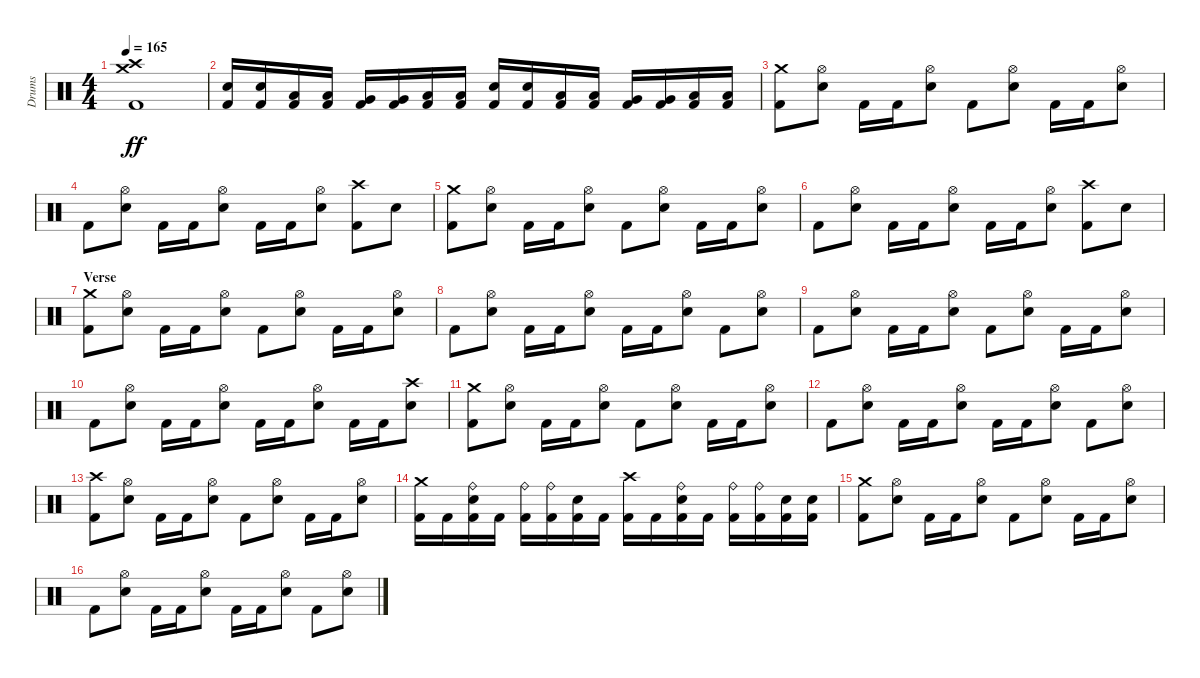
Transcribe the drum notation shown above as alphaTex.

\track ("Drums" "Drums") {instrument percussion}
\staff {score}
\articulation defaults
\ts (4 4)
\tempo 165
\clef neutral
\ks c
("Crash medium (hit)" "Crash high (hit)" "Kick (hit) 2").1{dy ff} |
("Electric Snare (hit)" "Kick (hit) 2").16 ("Electric Snare (hit)" "Kick (hit) 2").16 ("Low Tom (hit)" "Kick (hit) 2").16 ("Low Tom (hit)" "Kick (hit) 2").16 ("Very Low Tom (hit)" "Kick (hit) 2").16 ("Very Low Tom (hit)" "Kick (hit) 2").16 ("Low Tom (hit)" "Kick (hit) 2").16 ("Low Tom (hit)" "Kick (hit) 2").16 ("Electric Snare (hit)" "Kick (hit) 2").16 ("Electric Snare (hit)" "Kick (hit) 2").16 ("Low Tom (hit)" "Kick (hit) 2").16 ("Low Tom (hit)" "Kick (hit) 2").16 ("Very Low Tom (hit)" "Kick (hit) 2").16 ("Very Low Tom (hit)" "Kick (hit) 2").16 ("Low Tom (hit)" "Kick (hit) 2").16 ("Low Tom (hit)" "Kick (hit) 2").16 |
("Crash medium (hit)" "Kick (hit) 2").8 ("Hi-Hat (open)" "Electric Snare (hit)").8 "Kick (hit) 2".16 "Kick (hit) 2".16 ("Hi-Hat (open)" "Electric Snare (hit)").8 "Kick (hit) 2".8 ("Hi-Hat (open)" "Electric Snare (hit)").8 "Kick (hit) 2".16 "Kick (hit) 2".16 ("Hi-Hat (open)" "Electric Snare (hit)").8 |
"Kick (hit) 2".8 ("Hi-Hat (open)" "Electric Snare (hit)").8 "Kick (hit) 2".16 "Kick (hit) 2".16 ("Hi-Hat (open)" "Electric Snare (hit)").8 "Kick (hit) 2".16 "Kick (hit) 2".16 ("Hi-Hat (open)" "Electric Snare (hit)").8 ("Crash high (hit)" "Kick (hit) 2").8 "Electric Snare (hit)".8 |
("Crash medium (hit)" "Kick (hit) 2").8 ("Hi-Hat (open)" "Electric Snare (hit)").8 "Kick (hit) 2".16 "Kick (hit) 2".16 ("Hi-Hat (open)" "Electric Snare (hit)").8 "Kick (hit) 2".8 ("Hi-Hat (open)" "Electric Snare (hit)").8 "Kick (hit) 2".16 "Kick (hit) 2".16 ("Hi-Hat (open)" "Electric Snare (hit)").8 |
"Kick (hit) 2".8 ("Hi-Hat (open)" "Electric Snare (hit)").8 "Kick (hit) 2".16 "Kick (hit) 2".16 ("Hi-Hat (open)" "Electric Snare (hit)").8 "Kick (hit) 2".16 "Kick (hit) 2".16 ("Hi-Hat (open)" "Electric Snare (hit)").8 ("Crash high (hit)" "Kick (hit) 2").8 "Electric Snare (hit)".8 |
\section ("" "Verse")
("Crash medium (hit)" "Kick (hit) 2").8 ("Hi-Hat (open)" "Electric Snare (hit)").8 "Kick (hit) 2".16 "Kick (hit) 2".16 ("Hi-Hat (open)" "Electric Snare (hit)").8 "Kick (hit) 2".8 ("Hi-Hat (open)" "Electric Snare (hit)").8 "Kick (hit) 2".16 "Kick (hit) 2".16 ("Hi-Hat (open)" "Electric Snare (hit)").8 |
"Kick (hit) 2".8 ("Hi-Hat (open)" "Electric Snare (hit)").8 "Kick (hit) 2".16 "Kick (hit) 2".16 ("Hi-Hat (open)" "Electric Snare (hit)").8 "Kick (hit) 2".16 "Kick (hit) 2".16 ("Hi-Hat (open)" "Electric Snare (hit)").8 "Kick (hit) 2".8 ("Hi-Hat (open)" "Electric Snare (hit)").8 |
"Kick (hit) 2".8 ("Hi-Hat (open)" "Electric Snare (hit)").8 "Kick (hit) 2".16 "Kick (hit) 2".16 ("Hi-Hat (open)" "Electric Snare (hit)").8 "Kick (hit) 2".8 ("Hi-Hat (open)" "Electric Snare (hit)").8 "Kick (hit) 2".16 "Kick (hit) 2".16 ("Hi-Hat (open)" "Electric Snare (hit)").8 |
"Kick (hit) 2".8 ("Hi-Hat (open)" "Electric Snare (hit)").8 "Kick (hit) 2".16 "Kick (hit) 2".16 ("Hi-Hat (open)" "Electric Snare (hit)").8 "Kick (hit) 2".16 "Kick (hit) 2".16 ("Hi-Hat (open)" "Electric Snare (hit)").8 "Kick (hit) 2".16 "Kick (hit) 2".16 ("Crash high (hit)" "Electric Snare (hit)").8 |
("Crash medium (hit)" "Kick (hit) 2").8 ("Hi-Hat (open)" "Electric Snare (hit)").8 "Kick (hit) 2".16 "Kick (hit) 2".16 ("Hi-Hat (open)" "Electric Snare (hit)").8 "Kick (hit) 2".8 ("Hi-Hat (open)" "Electric Snare (hit)").8 "Kick (hit) 2".16 "Kick (hit) 2".16 ("Hi-Hat (open)" "Electric Snare (hit)").8 |
"Kick (hit) 2".8 ("Hi-Hat (open)" "Electric Snare (hit)").8 "Kick (hit) 2".16 "Kick (hit) 2".16 ("Hi-Hat (open)" "Electric Snare (hit)").8 "Kick (hit) 2".16 "Kick (hit) 2".16 ("Hi-Hat (open)" "Electric Snare (hit)").8 "Kick (hit) 2".8 ("Hi-Hat (open)" "Electric Snare (hit)").8 |
("Crash high (hit)" "Kick (hit) 2").8 ("Hi-Hat (open)" "Electric Snare (hit)").8 "Kick (hit) 2".16 "Kick (hit) 2".16 ("Hi-Hat (open)" "Electric Snare (hit)").8 "Kick (hit) 2".8 ("Hi-Hat (open)" "Electric Snare (hit)").8 "Kick (hit) 2".16 "Kick (hit) 2".16 ("Hi-Hat (open)" "Electric Snare (hit)").8 |
("Crash medium (hit)" "Kick (hit) 2").16 "Kick (hit) 2".16 ("Ride (bell)" "Electric Snare (hit)" "Kick (hit) 2").16 "Kick (hit) 2".16 ("Ride (bell)" "Kick (hit) 2").16 ("Ride (bell)" "Kick (hit) 2").16 ("Electric Snare (hit)" "Kick (hit) 2").16 "Kick (hit) 2".16 ("Crash high (hit)" "Kick (hit) 2").16 "Kick (hit) 2".16 ("Ride (bell)" "Electric Snare (hit)" "Kick (hit) 2").16 "Kick (hit) 2".16 ("Ride (bell)" "Kick (hit) 2").16 ("Ride (bell)" "Kick (hit) 2").16 ("Electric Snare (hit)" "Kick (hit) 2").16 ("Electric Snare (hit)" "Kick (hit) 2").16 |
("Crash medium (hit)" "Kick (hit) 2").8 ("Hi-Hat (open)" "Electric Snare (hit)").8 "Kick (hit) 2".16 "Kick (hit) 2".16 ("Hi-Hat (open)" "Electric Snare (hit)").8 "Kick (hit) 2".8 ("Hi-Hat (open)" "Electric Snare (hit)").8 "Kick (hit) 2".16 "Kick (hit) 2".16 ("Hi-Hat (open)" "Electric Snare (hit)").8 |
"Kick (hit) 2".8 ("Hi-Hat (open)" "Electric Snare (hit)").8 "Kick (hit) 2".16 "Kick (hit) 2".16 ("Hi-Hat (open)" "Electric Snare (hit)").8 "Kick (hit) 2".16 "Kick (hit) 2".16 ("Hi-Hat (open)" "Electric Snare (hit)").8 "Kick (hit) 2".8 ("Hi-Hat (open)" "Electric Snare (hit)").8
